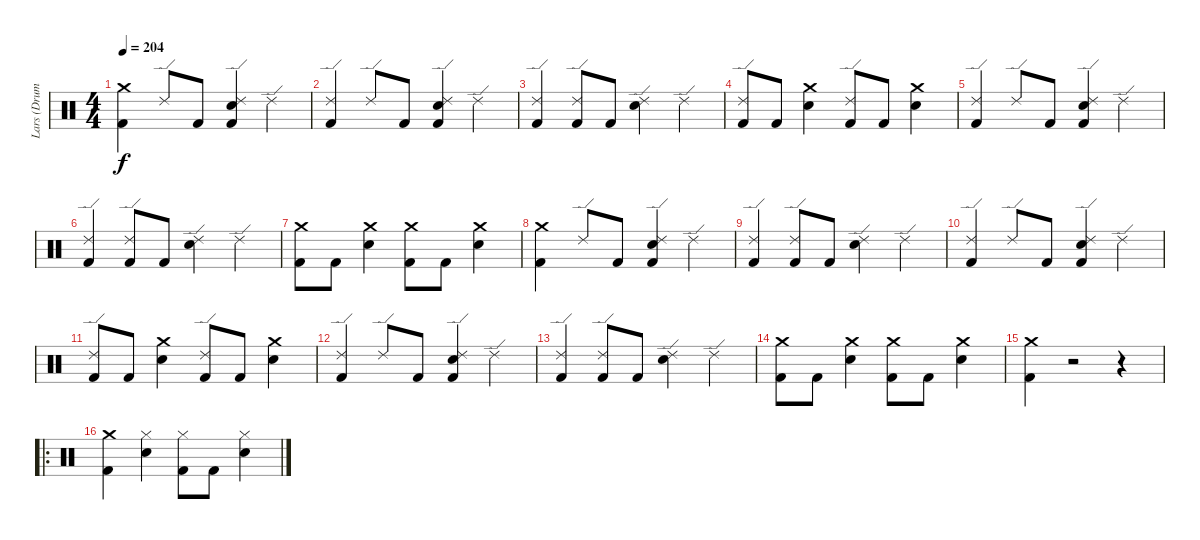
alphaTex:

\track ("Lars (Drums)" "Lars (Drum") {instrument percussion}
\staff {score}
\articulation defaults
\ts (4 4)
\tempo 204
\clef neutral
\ks c
("Kick (hit) 2" "Crash medium (hit)").4{dy f} "Ride (edge) 2".8 "Kick (hit) 2".8 ("Kick (hit) 2" "Snare (hit) 2" "Ride (edge) 2").4 "Ride (edge) 2".4 |
("Kick (hit) 2" "Ride (edge) 2").4 "Ride (edge) 2".8 "Kick (hit) 2".8 ("Kick (hit) 2" "Snare (hit) 2" "Ride (edge) 2").4 "Ride (edge) 2".4 |
("Kick (hit) 2" "Ride (edge) 2").4 ("Kick (hit) 2" "Ride (edge) 2").8 "Kick (hit) 2".8 ("Ride (edge) 2" "Snare (hit) 2").4 "Ride (edge) 2".4 |
("Ride (edge) 2" "Kick (hit) 2").8 "Kick (hit) 2".8 ("Snare (hit) 2" "Crash medium (hit)").4 ("Ride (edge) 2" "Kick (hit) 2").8 "Kick (hit) 2".8 ("Snare (hit) 2" "Crash medium (hit)").4 |
("Ride (edge) 2" "Kick (hit) 2").4 "Ride (edge) 2".8 "Kick (hit) 2".8 ("Ride (edge) 2" "Snare (hit) 2" "Kick (hit) 2").4 "Ride (edge) 2".4 |
("Kick (hit) 2" "Ride (edge) 2").4 ("Ride (edge) 2" "Kick (hit) 2").8 "Kick (hit) 2".8 ("Snare (hit) 2" "Ride (edge) 2").4 "Ride (edge) 2".4 |
("Kick (hit) 2" "Crash medium (hit)").8 "Kick (hit) 2".8 ("Snare (hit) 2" "Crash medium (hit)").4 ("Kick (hit) 2" "Crash medium (hit)").8 "Kick (hit) 2".8 ("Snare (hit) 2" "Crash medium (hit)").4 |
("Kick (hit) 2" "Crash medium (hit)").4 "Ride (edge) 2".8 "Kick (hit) 2".8 ("Kick (hit) 2" "Snare (hit) 2" "Ride (edge) 2").4 "Ride (edge) 2".4 |
("Kick (hit) 2" "Ride (edge) 2").4 ("Ride (edge) 2" "Kick (hit) 2").8 "Kick (hit) 2".8 ("Snare (hit) 2" "Ride (edge) 2").4 "Ride (edge) 2".4 |
("Kick (hit) 2" "Ride (edge) 2").4 "Ride (edge) 2".8 "Kick (hit) 2".8 ("Ride (edge) 2" "Snare (hit) 2" "Kick (hit) 2").4 "Ride (edge) 2".4 |
("Ride (edge) 2" "Kick (hit) 2").8 "Kick (hit) 2".8 ("Snare (hit) 2" "Crash medium (hit)").4 ("Ride (edge) 2" "Kick (hit) 2").8 "Kick (hit) 2".8 ("Snare (hit) 2" "Crash medium (hit)").4 |
("Ride (edge) 2" "Kick (hit) 2").4 "Ride (edge) 2".8 "Kick (hit) 2".8 ("Ride (edge) 2" "Snare (hit) 2" "Kick (hit) 2").4 "Ride (edge) 2".4 |
("Kick (hit) 2" "Ride (edge) 2").4 ("Ride (edge) 2" "Kick (hit) 2").8 "Kick (hit) 2".8 ("Snare (hit) 2" "Ride (edge) 2").4 "Ride (edge) 2".4 |
("Kick (hit) 2" "Crash medium (hit)").8 "Kick (hit) 2".8 ("Snare (hit) 2" "Crash medium (hit)").4 ("Kick (hit) 2" "Crash medium (hit)").8 "Kick (hit) 2".8 ("Snare (hit) 2" "Crash medium (hit)").4 |
("Kick (hit) 2" "Crash medium (hit)").4 r.2 r.4 |
\ro
("Kick (hit) 2" "Crash medium (hit)").4 ("Hi-Hat (closed)" "Snare (hit) 2").4 ("Hi-Hat (closed)" "Kick (hit) 2").8 "Kick (hit) 2".8 ("Snare (hit) 2" "Hi-Hat (closed)").4
